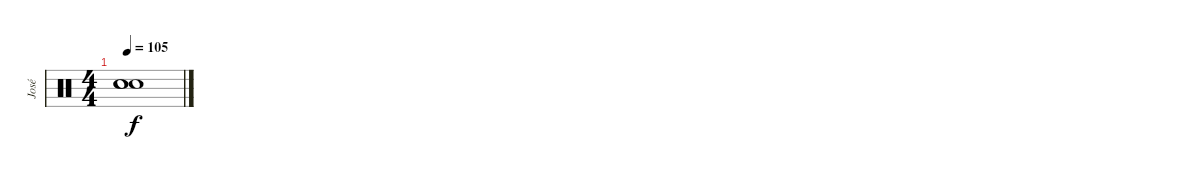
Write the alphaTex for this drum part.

\track ("José" "José") {instrument percussion}
\staff
\articulation defaults
\ts (4 4)
\tempo 105
\clef neutral
\ks c
("Snare (hit)"{t} "Snare (hit)"{t} "Snare (hit)"{t}).1{dy f}
